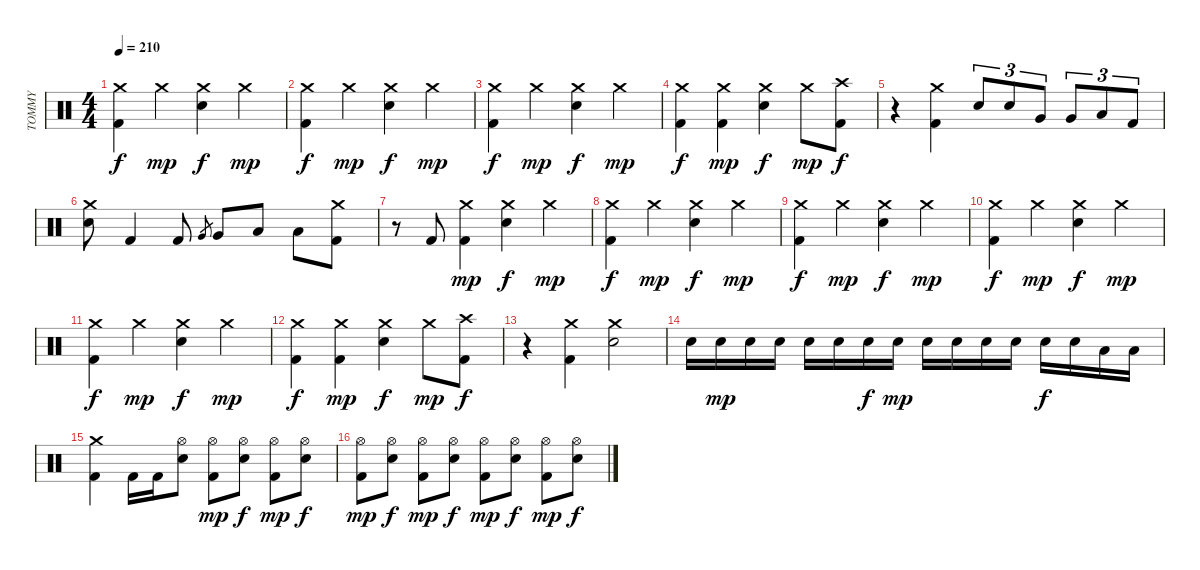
\track ("TOMMY" "TOMMY") {instrument percussion}
\staff {score}
\articulation defaults
\ts (4 4)
\tempo 210
\clef neutral
\ks c
("Kick (hit) 2" "Crash medium (hit)").4{dy f} "Crash medium (hit)".4{dy mp} ("Snare (hit) 2" "Crash medium (hit)").4{dy f} "Crash medium (hit)".4{dy mp} |
("Kick (hit) 2" "Crash medium (hit)").4{dy f} "Crash medium (hit)".4{dy mp} ("Snare (hit) 2" "Crash medium (hit)").4{dy f} "Crash medium (hit)".4{dy mp} |
("Kick (hit) 2" "Crash medium (hit)").4{dy f} "Crash medium (hit)".4{dy mp} ("Snare (hit) 2" "Crash medium (hit)").4{dy f} "Crash medium (hit)".4{dy mp} |
("Kick (hit) 2" "Crash medium (hit)").4{dy f} ("Kick (hit) 2" "Crash medium (hit)").4{dy mp} ("Snare (hit) 2" "Crash medium (hit)").4{dy f} "Crash medium (hit)".8{dy mp} ("Kick (hit) 2" "Crash high (hit)").8{dy f} |
r.4 ("Kick (hit) 2" "Crash medium (hit)").4 "Snare (hit) 2".8{tu (3 2)} "Snare (hit) 2".8{tu (3 2)} "Very Low Tom (hit)".8{tu (3 2)} "Very Low Tom (hit)".8{tu (3 2)} "Low Floor Tom (hit)".8{tu (3 2)} "Kick (hit) 2".8{tu (3 2)} |
("Snare (hit) 2" "Crash medium (hit)").8 "Kick (hit) 2".4 "Kick (hit) 2".8 "Very Low Tom (hit)".8{gr} "Very Low Tom (hit)".8 "Low Floor Tom (hit)".8 "Low Floor Tom (hit)".8 ("Kick (hit) 2" "Crash medium (hit)").8 |
r.8 "Kick (hit) 2".8 ("Kick (hit) 2" "Crash medium (hit)").4{dy mp} ("Snare (hit) 2" "Crash medium (hit)").4{dy f} "Crash medium (hit)".4{dy mp} |
("Kick (hit) 2" "Crash medium (hit)").4{dy f} "Crash medium (hit)".4{dy mp} ("Snare (hit) 2" "Crash medium (hit)").4{dy f} "Crash medium (hit)".4{dy mp} |
("Kick (hit) 2" "Crash medium (hit)").4{dy f} "Crash medium (hit)".4{dy mp} ("Snare (hit) 2" "Crash medium (hit)").4{dy f} "Crash medium (hit)".4{dy mp} |
("Kick (hit) 2" "Crash medium (hit)").4{dy f} "Crash medium (hit)".4{dy mp} ("Snare (hit) 2" "Crash medium (hit)").4{dy f} "Crash medium (hit)".4{dy mp} |
("Kick (hit) 2" "Crash medium (hit)").4{dy f} "Crash medium (hit)".4{dy mp} ("Snare (hit) 2" "Crash medium (hit)").4{dy f} "Crash medium (hit)".4{dy mp} |
("Kick (hit) 2" "Crash medium (hit)").4{dy f} ("Kick (hit) 2" "Crash medium (hit)").4{dy mp} ("Snare (hit) 2" "Crash medium (hit)").4{dy f} "Crash medium (hit)".8{dy mp} ("Kick (hit) 2" "Crash high (hit)").8{dy f} |
r.4 ("Kick (hit) 2" "Crash medium (hit)").4 ("Snare (hit) 2" "Crash medium (hit)").2 |
"Snare (hit) 2".16 "Snare (hit) 2".16{dy mp} "Snare (hit) 2".16 "Snare (hit) 2".16 "Snare (hit) 2".16 "Snare (hit) 2".16 "Snare (hit) 2".16{dy f} "Snare (hit) 2".16{dy mp} "Snare (hit) 2".16 "Snare (hit) 2".16 "Snare (hit) 2".16 "Snare (hit) 2".16 "Snare (hit) 2".16{dy f} "Snare (hit) 2".16 "Low Floor Tom (hit)".16 "Low Floor Tom (hit)".16 |
("Kick (hit) 2" "Crash medium (hit)").4 "Kick (hit) 2".16 "Kick (hit) 2".16 ("Snare (hit) 2" "Hi-Hat (open)").8 ("Kick (hit) 2" "Hi-Hat (open)").8{dy mp} ("Snare (hit) 2" "Hi-Hat (open)").8{dy f} ("Kick (hit) 2" "Hi-Hat (open)").8{dy mp} ("Snare (hit) 2" "Hi-Hat (open)").8{dy f} |
("Kick (hit) 2" "Hi-Hat (open)").8{dy mp} ("Snare (hit) 2" "Hi-Hat (open)").8{dy f} ("Kick (hit) 2" "Hi-Hat (open)").8{dy mp} ("Snare (hit) 2" "Hi-Hat (open)").8{dy f} ("Kick (hit) 2" "Hi-Hat (open)").8{dy mp} ("Snare (hit) 2" "Hi-Hat (open)").8{dy f} ("Kick (hit) 2" "Hi-Hat (open)").8{dy mp} ("Snare (hit) 2" "Hi-Hat (open)").8{dy f}
